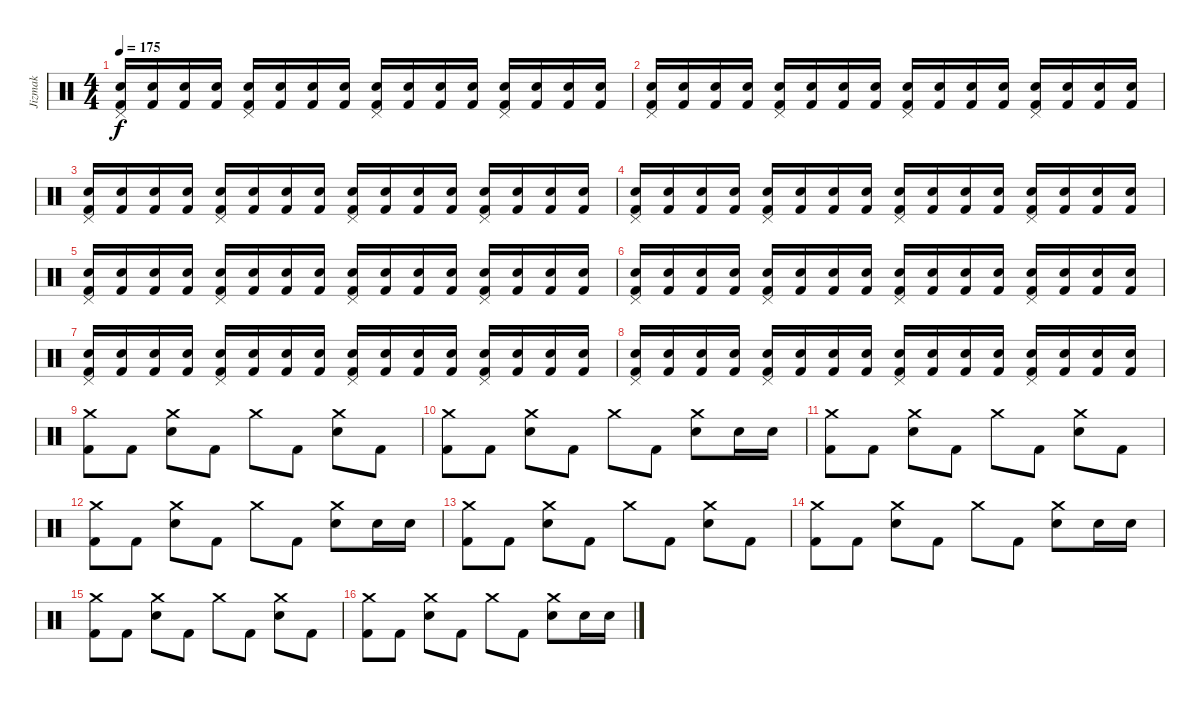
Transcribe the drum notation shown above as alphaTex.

\track ("Jizmak" "Jizmak") {instrument percussion}
\staff {score}
\articulation defaults
\ts (4 4)
\tempo 175
\clef neutral
\ks c
("Pedal Hi-Hat (hit)" "Snare (hit) 2" "Kick (hit) 2").16{dy f volume 12} ("Snare (hit) 2" "Kick (hit) 2").16 ("Snare (hit) 2" "Kick (hit) 2").16 ("Snare (hit) 2" "Kick (hit) 2").16 ("Pedal Hi-Hat (hit)" "Snare (hit) 2" "Kick (hit) 2").16 ("Snare (hit) 2" "Kick (hit) 2").16 ("Snare (hit) 2" "Kick (hit) 2").16 ("Snare (hit) 2" "Kick (hit) 2").16 ("Pedal Hi-Hat (hit)" "Snare (hit) 2" "Kick (hit) 2").16 ("Snare (hit) 2" "Kick (hit) 2").16 ("Snare (hit) 2" "Kick (hit) 2").16 ("Snare (hit) 2" "Kick (hit) 2").16 ("Pedal Hi-Hat (hit)" "Snare (hit) 2" "Kick (hit) 2").16 ("Snare (hit) 2" "Kick (hit) 2").16 ("Snare (hit) 2" "Kick (hit) 2").16 ("Snare (hit) 2" "Kick (hit) 2").16 |
("Pedal Hi-Hat (hit)" "Snare (hit) 2" "Kick (hit) 2").16 ("Snare (hit) 2" "Kick (hit) 2").16 ("Snare (hit) 2" "Kick (hit) 2").16 ("Snare (hit) 2" "Kick (hit) 2").16 ("Pedal Hi-Hat (hit)" "Snare (hit) 2" "Kick (hit) 2").16 ("Snare (hit) 2" "Kick (hit) 2").16 ("Snare (hit) 2" "Kick (hit) 2").16 ("Snare (hit) 2" "Kick (hit) 2").16 ("Pedal Hi-Hat (hit)" "Snare (hit) 2" "Kick (hit) 2").16 ("Snare (hit) 2" "Kick (hit) 2").16 ("Snare (hit) 2" "Kick (hit) 2").16 ("Snare (hit) 2" "Kick (hit) 2").16 ("Pedal Hi-Hat (hit)" "Snare (hit) 2" "Kick (hit) 2").16 ("Snare (hit) 2" "Kick (hit) 2").16 ("Snare (hit) 2" "Kick (hit) 2").16 ("Snare (hit) 2" "Kick (hit) 2").16 |
("Pedal Hi-Hat (hit)" "Snare (hit) 2" "Kick (hit) 2").16 ("Snare (hit) 2" "Kick (hit) 2").16 ("Snare (hit) 2" "Kick (hit) 2").16 ("Snare (hit) 2" "Kick (hit) 2").16 ("Pedal Hi-Hat (hit)" "Snare (hit) 2" "Kick (hit) 2").16 ("Snare (hit) 2" "Kick (hit) 2").16 ("Snare (hit) 2" "Kick (hit) 2").16 ("Snare (hit) 2" "Kick (hit) 2").16 ("Pedal Hi-Hat (hit)" "Snare (hit) 2" "Kick (hit) 2").16 ("Snare (hit) 2" "Kick (hit) 2").16 ("Snare (hit) 2" "Kick (hit) 2").16 ("Snare (hit) 2" "Kick (hit) 2").16 ("Pedal Hi-Hat (hit)" "Snare (hit) 2" "Kick (hit) 2").16 ("Snare (hit) 2" "Kick (hit) 2").16 ("Snare (hit) 2" "Kick (hit) 2").16 ("Snare (hit) 2" "Kick (hit) 2").16 |
("Pedal Hi-Hat (hit)" "Snare (hit) 2" "Kick (hit) 2").16 ("Snare (hit) 2" "Kick (hit) 2").16 ("Snare (hit) 2" "Kick (hit) 2").16 ("Snare (hit) 2" "Kick (hit) 2").16 ("Pedal Hi-Hat (hit)" "Snare (hit) 2" "Kick (hit) 2").16 ("Snare (hit) 2" "Kick (hit) 2").16 ("Snare (hit) 2" "Kick (hit) 2").16 ("Snare (hit) 2" "Kick (hit) 2").16 ("Pedal Hi-Hat (hit)" "Snare (hit) 2" "Kick (hit) 2").16 ("Snare (hit) 2" "Kick (hit) 2").16 ("Snare (hit) 2" "Kick (hit) 2").16 ("Snare (hit) 2" "Kick (hit) 2").16 ("Pedal Hi-Hat (hit)" "Snare (hit) 2" "Kick (hit) 2").16 ("Snare (hit) 2" "Kick (hit) 2").16 ("Snare (hit) 2" "Kick (hit) 2").16 ("Snare (hit) 2" "Kick (hit) 2").16 |
("Pedal Hi-Hat (hit)" "Snare (hit) 2" "Kick (hit) 2").16{volume 12} ("Snare (hit) 2" "Kick (hit) 2").16 ("Snare (hit) 2" "Kick (hit) 2").16 ("Snare (hit) 2" "Kick (hit) 2").16 ("Pedal Hi-Hat (hit)" "Snare (hit) 2" "Kick (hit) 2").16 ("Snare (hit) 2" "Kick (hit) 2").16 ("Snare (hit) 2" "Kick (hit) 2").16 ("Snare (hit) 2" "Kick (hit) 2").16 ("Pedal Hi-Hat (hit)" "Snare (hit) 2" "Kick (hit) 2").16 ("Snare (hit) 2" "Kick (hit) 2").16 ("Snare (hit) 2" "Kick (hit) 2").16 ("Snare (hit) 2" "Kick (hit) 2").16 ("Pedal Hi-Hat (hit)" "Snare (hit) 2" "Kick (hit) 2").16 ("Snare (hit) 2" "Kick (hit) 2").16 ("Snare (hit) 2" "Kick (hit) 2").16 ("Snare (hit) 2" "Kick (hit) 2").16 |
("Pedal Hi-Hat (hit)" "Snare (hit) 2" "Kick (hit) 2").16 ("Snare (hit) 2" "Kick (hit) 2").16 ("Snare (hit) 2" "Kick (hit) 2").16 ("Snare (hit) 2" "Kick (hit) 2").16 ("Pedal Hi-Hat (hit)" "Snare (hit) 2" "Kick (hit) 2").16 ("Snare (hit) 2" "Kick (hit) 2").16 ("Snare (hit) 2" "Kick (hit) 2").16 ("Snare (hit) 2" "Kick (hit) 2").16 ("Pedal Hi-Hat (hit)" "Snare (hit) 2" "Kick (hit) 2").16 ("Snare (hit) 2" "Kick (hit) 2").16 ("Snare (hit) 2" "Kick (hit) 2").16 ("Snare (hit) 2" "Kick (hit) 2").16 ("Pedal Hi-Hat (hit)" "Snare (hit) 2" "Kick (hit) 2").16 ("Snare (hit) 2" "Kick (hit) 2").16 ("Snare (hit) 2" "Kick (hit) 2").16 ("Snare (hit) 2" "Kick (hit) 2").16 |
("Pedal Hi-Hat (hit)" "Snare (hit) 2" "Kick (hit) 2").16 ("Snare (hit) 2" "Kick (hit) 2").16 ("Snare (hit) 2" "Kick (hit) 2").16 ("Snare (hit) 2" "Kick (hit) 2").16 ("Pedal Hi-Hat (hit)" "Snare (hit) 2" "Kick (hit) 2").16 ("Snare (hit) 2" "Kick (hit) 2").16 ("Snare (hit) 2" "Kick (hit) 2").16 ("Snare (hit) 2" "Kick (hit) 2").16 ("Pedal Hi-Hat (hit)" "Snare (hit) 2" "Kick (hit) 2").16 ("Snare (hit) 2" "Kick (hit) 2").16 ("Snare (hit) 2" "Kick (hit) 2").16 ("Snare (hit) 2" "Kick (hit) 2").16 ("Pedal Hi-Hat (hit)" "Snare (hit) 2" "Kick (hit) 2").16 ("Snare (hit) 2" "Kick (hit) 2").16 ("Snare (hit) 2" "Kick (hit) 2").16 ("Snare (hit) 2" "Kick (hit) 2").16 |
("Pedal Hi-Hat (hit)" "Snare (hit) 2" "Kick (hit) 2").16 ("Snare (hit) 2" "Kick (hit) 2").16 ("Snare (hit) 2" "Kick (hit) 2").16 ("Snare (hit) 2" "Kick (hit) 2").16 ("Pedal Hi-Hat (hit)" "Snare (hit) 2" "Kick (hit) 2").16 ("Snare (hit) 2" "Kick (hit) 2").16 ("Snare (hit) 2" "Kick (hit) 2").16 ("Snare (hit) 2" "Kick (hit) 2").16 ("Pedal Hi-Hat (hit)" "Snare (hit) 2" "Kick (hit) 2").16 ("Snare (hit) 2" "Kick (hit) 2").16 ("Snare (hit) 2" "Kick (hit) 2").16 ("Snare (hit) 2" "Kick (hit) 2").16 ("Pedal Hi-Hat (hit)" "Snare (hit) 2" "Kick (hit) 2").16 ("Snare (hit) 2" "Kick (hit) 2").16 ("Snare (hit) 2" "Kick (hit) 2").16 ("Snare (hit) 2" "Kick (hit) 2").16 |
("Crash medium (hit)" "Kick (hit) 2").8{volume 16} "Kick (hit) 2".8 ("Crash medium (hit)" "Snare (hit) 2").8 "Kick (hit) 2".8 "Crash medium (hit)".8 "Kick (hit) 2".8 ("Crash medium (hit)" "Snare (hit) 2").8 "Kick (hit) 2".8 |
("Crash medium (hit)" "Kick (hit) 2").8 "Kick (hit) 2".8 ("Crash medium (hit)" "Snare (hit) 2").8 "Kick (hit) 2".8 "Crash medium (hit)".8 "Kick (hit) 2".8 ("Crash medium (hit)" "Snare (hit) 2").8 "Snare (hit) 2".16 "Snare (hit) 2".16 |
("Crash medium (hit)" "Kick (hit) 2").8 "Kick (hit) 2".8 ("Crash medium (hit)" "Snare (hit) 2").8 "Kick (hit) 2".8 "Crash medium (hit)".8 "Kick (hit) 2".8 ("Crash medium (hit)" "Snare (hit) 2").8 "Kick (hit) 2".8 |
("Crash medium (hit)" "Kick (hit) 2").8 "Kick (hit) 2".8 ("Crash medium (hit)" "Snare (hit) 2").8 "Kick (hit) 2".8 "Crash medium (hit)".8 "Kick (hit) 2".8 ("Crash medium (hit)" "Snare (hit) 2").8 "Snare (hit) 2".16 "Snare (hit) 2".16 |
("Crash medium (hit)" "Kick (hit) 2").8 "Kick (hit) 2".8 ("Crash medium (hit)" "Snare (hit) 2").8 "Kick (hit) 2".8 "Crash medium (hit)".8 "Kick (hit) 2".8 ("Crash medium (hit)" "Snare (hit) 2").8 "Kick (hit) 2".8 |
("Crash medium (hit)" "Kick (hit) 2").8 "Kick (hit) 2".8 ("Crash medium (hit)" "Snare (hit) 2").8 "Kick (hit) 2".8 "Crash medium (hit)".8 "Kick (hit) 2".8 ("Crash medium (hit)" "Snare (hit) 2").8 "Snare (hit) 2".16 "Snare (hit) 2".16 |
("Crash medium (hit)" "Kick (hit) 2").8 "Kick (hit) 2".8 ("Crash medium (hit)" "Snare (hit) 2").8 "Kick (hit) 2".8 "Crash medium (hit)".8 "Kick (hit) 2".8 ("Crash medium (hit)" "Snare (hit) 2").8 "Kick (hit) 2".8 |
("Crash medium (hit)" "Kick (hit) 2").8 "Kick (hit) 2".8 ("Crash medium (hit)" "Snare (hit) 2").8 "Kick (hit) 2".8 "Crash medium (hit)".8 "Kick (hit) 2".8 ("Crash medium (hit)" "Snare (hit) 2").8 "Snare (hit) 2".16 "Snare (hit) 2".16
